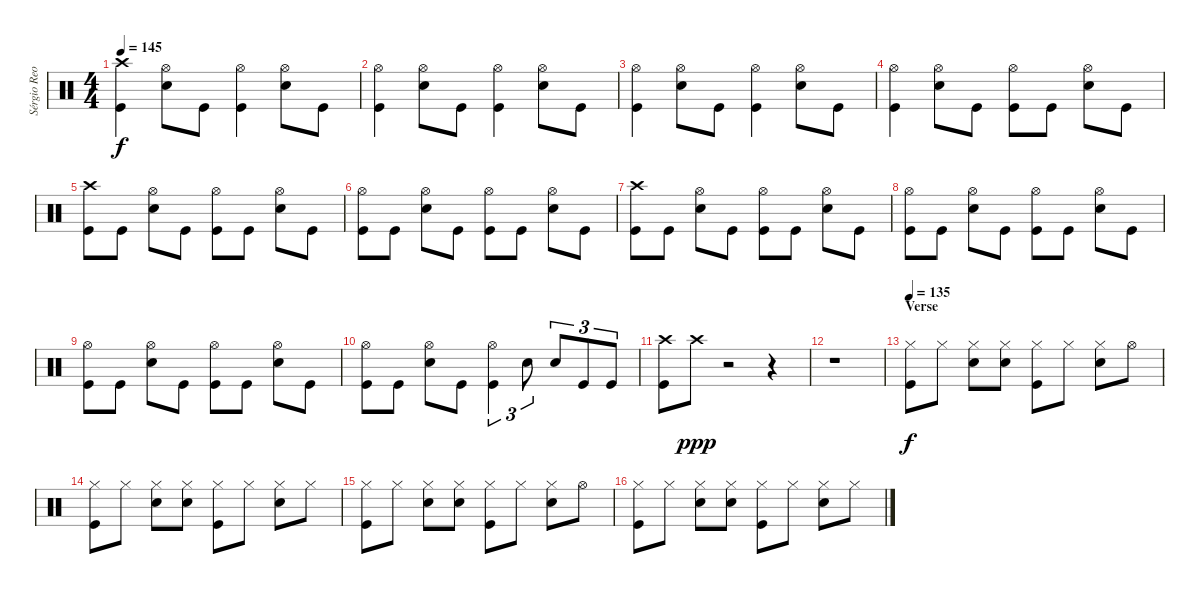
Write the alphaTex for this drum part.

\track ("Sérgio Reoli" "Sérgio Reo") {instrument percussion}
\staff {score}
\articulation defaults
\ts (4 4)
\tempo 145
\clef neutral
\ks c
("Crash high (hit)" "Kick (hit)").4{dy f} ("Hi-Hat (open)" "Electric Snare (hit)").8 "Kick (hit)".8 ("Hi-Hat (open)" "Kick (hit)").4 ("Hi-Hat (open)" "Electric Snare (hit)").8 "Kick (hit)".8 |
("Hi-Hat (open)" "Kick (hit)").4 ("Hi-Hat (open)" "Electric Snare (hit)").8 "Kick (hit)".8 ("Hi-Hat (open)" "Kick (hit)").4 ("Hi-Hat (open)" "Electric Snare (hit)").8 "Kick (hit)".8 |
("Hi-Hat (open)" "Kick (hit)").4 ("Hi-Hat (open)" "Electric Snare (hit)").8 "Kick (hit)".8 ("Hi-Hat (open)" "Kick (hit)").4 ("Hi-Hat (open)" "Electric Snare (hit)").8 "Kick (hit)".8 |
("Hi-Hat (open)" "Kick (hit)").4 ("Hi-Hat (open)" "Electric Snare (hit)").8 "Kick (hit)".8 ("Hi-Hat (open)" "Kick (hit)").8 "Kick (hit)".8 ("Hi-Hat (open)" "Electric Snare (hit)").8 "Kick (hit)".8 |
("Crash high (hit)" "Kick (hit)").8 "Kick (hit)".8 ("Hi-Hat (open)" "Electric Snare (hit)").8 "Kick (hit)".8 ("Hi-Hat (open)" "Kick (hit)").8 "Kick (hit)".8 ("Hi-Hat (open)" "Electric Snare (hit)").8 "Kick (hit)".8 |
("Hi-Hat (open)" "Kick (hit)").8 "Kick (hit)".8 ("Hi-Hat (open)" "Electric Snare (hit)").8 "Kick (hit)".8 ("Hi-Hat (open)" "Kick (hit)").8 "Kick (hit)".8 ("Hi-Hat (open)" "Electric Snare (hit)").8 "Kick (hit)".8 |
("Crash high (hit)" "Kick (hit)").8 "Kick (hit)".8 ("Hi-Hat (open)" "Electric Snare (hit)").8 "Kick (hit)".8 ("Hi-Hat (open)" "Kick (hit)").8 "Kick (hit)".8 ("Hi-Hat (open)" "Electric Snare (hit)").8 "Kick (hit)".8 |
("Hi-Hat (open)" "Kick (hit)").8 "Kick (hit)".8 ("Hi-Hat (open)" "Electric Snare (hit)").8 "Kick (hit)".8 ("Hi-Hat (open)" "Kick (hit)").8 "Kick (hit)".8 ("Hi-Hat (open)" "Electric Snare (hit)").8 "Kick (hit)".8 |
("Hi-Hat (open)" "Kick (hit)").8 "Kick (hit)".8 ("Hi-Hat (open)" "Electric Snare (hit)").8 "Kick (hit)".8 ("Hi-Hat (open)" "Kick (hit)").8 "Kick (hit)".8 ("Hi-Hat (open)" "Electric Snare (hit)").8 "Kick (hit)".8 |
("Hi-Hat (open)" "Kick (hit)").8 "Kick (hit)".8 ("Hi-Hat (open)" "Electric Snare (hit)").8 "Kick (hit)".8 ("Hi-Hat (open)" "Kick (hit)").4{tu (3 2)} "Electric Snare (hit)".8{tu (3 2)} "Electric Snare (hit)".8{tu (3 2)} "Kick (hit)".8{tu (3 2)} "Kick (hit)".8{tu (3 2)} |
("Crash high (hit)" "Kick (hit)").8 "Crash high (hit)".8{dy ppp} r.2 r.4 |
r.1 |
\section ("" "Verse")
\tempo 135
("Hi-Hat (closed)" "Kick (hit)").8{dy f} "Hi-Hat (closed)".8 ("Hi-Hat (closed)" "Electric Snare (hit)").8 ("Hi-Hat (closed)" "Electric Snare (hit)").8 ("Hi-Hat (closed)" "Kick (hit)").8 "Hi-Hat (closed)".8 ("Hi-Hat (closed)" "Electric Snare (hit)").8 "Hi-Hat (open)".8 |
("Hi-Hat (closed)" "Kick (hit)").8 "Hi-Hat (closed)".8 ("Hi-Hat (closed)" "Electric Snare (hit)").8 ("Hi-Hat (closed)" "Electric Snare (hit)").8 ("Hi-Hat (closed)" "Kick (hit)").8 "Hi-Hat (closed)".8 ("Hi-Hat (closed)" "Electric Snare (hit)").8 "Hi-Hat (closed)".8 |
("Hi-Hat (closed)" "Kick (hit)").8 "Hi-Hat (closed)".8 ("Hi-Hat (closed)" "Electric Snare (hit)").8 ("Hi-Hat (closed)" "Electric Snare (hit)").8 ("Hi-Hat (closed)" "Kick (hit)").8 "Hi-Hat (closed)".8 ("Hi-Hat (closed)" "Electric Snare (hit)").8 "Hi-Hat (open)".8 |
("Hi-Hat (closed)" "Kick (hit)").8 "Hi-Hat (closed)".8 ("Hi-Hat (closed)" "Electric Snare (hit)").8 ("Hi-Hat (closed)" "Electric Snare (hit)").8 ("Hi-Hat (closed)" "Kick (hit)").8 "Hi-Hat (closed)".8 ("Hi-Hat (closed)" "Electric Snare (hit)").8 "Hi-Hat (closed)".8
